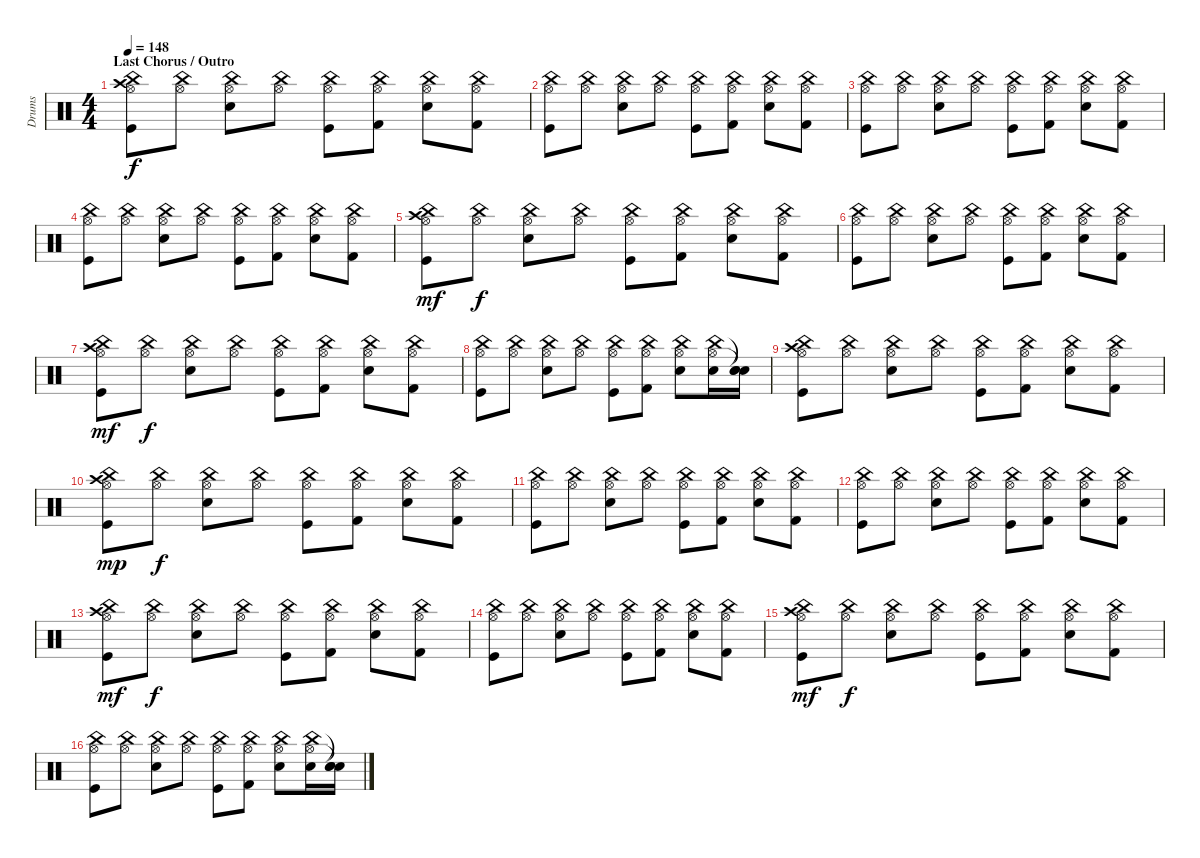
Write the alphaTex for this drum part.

\track ("Drums" "Drums") {instrument percussion}
\staff {score}
\articulation defaults
\ts (4 4)
\section ("" "Last Chorus / Outro")
\tempo 148
\clef neutral
\ks c
("Crash high (hit)" "Hi-Hat (open)" "China (hit)" "Kick (hit)").8{dy f} ("Hi-Hat (open)" "China (hit)").8 ("Hi-Hat (open)" "China (hit)" "Snare (hit) 2").8 ("Hi-Hat (open)" "China (hit)").8 ("Hi-Hat (open)" "China (hit)" "Kick (hit)").8 ("Hi-Hat (open)" "China (hit)" "Kick (hit) 2").8 ("Hi-Hat (open)" "China (hit)" "Snare (hit) 2").8 ("Hi-Hat (open)" "China (hit)" "Kick (hit) 2").8 |
("Hi-Hat (open)" "China (hit)" "Kick (hit)").8 ("Hi-Hat (open)" "China (hit)").8 ("Hi-Hat (open)" "China (hit)" "Snare (hit) 2").8 ("Hi-Hat (open)" "China (hit)").8 ("Hi-Hat (open)" "China (hit)" "Kick (hit)").8 ("Hi-Hat (open)" "China (hit)" "Kick (hit) 2").8 ("Hi-Hat (open)" "China (hit)" "Snare (hit) 2").8 ("Hi-Hat (open)" "China (hit)" "Kick (hit) 2").8 |
("Hi-Hat (open)" "China (hit)" "Kick (hit)").8 ("Hi-Hat (open)" "China (hit)").8 ("Hi-Hat (open)" "China (hit)" "Snare (hit) 2").8 ("Hi-Hat (open)" "China (hit)").8 ("Hi-Hat (open)" "China (hit)" "Kick (hit)").8 ("Hi-Hat (open)" "China (hit)" "Kick (hit) 2").8 ("Hi-Hat (open)" "China (hit)" "Snare (hit) 2").8 ("Hi-Hat (open)" "China (hit)" "Kick (hit) 2").8 |
("Hi-Hat (open)" "China (hit)" "Kick (hit)").8 ("Hi-Hat (open)" "China (hit)").8 ("Hi-Hat (open)" "China (hit)" "Snare (hit) 2").8 ("Hi-Hat (open)" "China (hit)").8 ("Hi-Hat (open)" "China (hit)" "Kick (hit)").8 ("Hi-Hat (open)" "China (hit)" "Kick (hit) 2").8 ("Hi-Hat (open)" "China (hit)" "Snare (hit) 2").8 ("Hi-Hat (open)" "China (hit)" "Kick (hit) 2").8 |
("Crash high (hit)" "Hi-Hat (open)" "China (hit)" "Kick (hit)").8{dy mf} ("Hi-Hat (open)" "China (hit)").8{dy f} ("Hi-Hat (open)" "China (hit)" "Snare (hit) 2").8 ("Hi-Hat (open)" "China (hit)").8 ("Hi-Hat (open)" "China (hit)" "Kick (hit)").8 ("Hi-Hat (open)" "China (hit)" "Kick (hit) 2").8 ("Hi-Hat (open)" "China (hit)" "Snare (hit) 2").8 ("Hi-Hat (open)" "China (hit)" "Kick (hit) 2").8 |
("Hi-Hat (open)" "China (hit)" "Kick (hit)").8 ("Hi-Hat (open)" "China (hit)").8 ("Hi-Hat (open)" "China (hit)" "Snare (hit) 2").8 ("Hi-Hat (open)" "China (hit)").8 ("Hi-Hat (open)" "China (hit)" "Kick (hit)").8 ("Hi-Hat (open)" "China (hit)" "Kick (hit) 2").8 ("Hi-Hat (open)" "China (hit)" "Snare (hit) 2").8 ("Hi-Hat (open)" "China (hit)" "Kick (hit) 2").8 |
("Crash high (hit)" "Hi-Hat (open)" "China (hit)" "Kick (hit)").8{dy mf} ("Hi-Hat (open)" "China (hit)").8{dy f} ("Hi-Hat (open)" "China (hit)" "Snare (hit) 2").8 ("Hi-Hat (open)" "China (hit)").8 ("Hi-Hat (open)" "China (hit)" "Kick (hit)").8 ("Hi-Hat (open)" "China (hit)" "Kick (hit) 2").8 ("Hi-Hat (open)" "China (hit)" "Snare (hit) 2").8 ("Hi-Hat (open)" "China (hit)" "Kick (hit) 2").8 |
("Hi-Hat (open)" "China (hit)" "Kick (hit)").8 ("Hi-Hat (open)" "China (hit)").8 ("Hi-Hat (open)" "China (hit)" "Snare (hit) 2").8 ("Hi-Hat (open)" "China (hit)").8 ("Hi-Hat (open)" "China (hit)" "Kick (hit)").8 ("Hi-Hat (open)" "China (hit)" "Kick (hit) 2").8 ("Hi-Hat (open)" "China (hit)" "Snare (hit) 2").8 ("Hi-Hat (open)" "China (hit)" "Snare (hit) 2").16 ("Snare (hit)"{t} "Snare (hit)"{t} "Electric Snare (hit)").16 |
("Crash high (hit)" "Hi-Hat (open)" "China (hit)" "Kick (hit)").8 ("Hi-Hat (open)" "China (hit)").8 ("Hi-Hat (open)" "China (hit)" "Snare (hit) 2").8 ("Hi-Hat (open)" "China (hit)").8 ("Hi-Hat (open)" "China (hit)" "Kick (hit)").8 ("Hi-Hat (open)" "China (hit)" "Kick (hit) 2").8 ("Hi-Hat (open)" "China (hit)" "Snare (hit) 2").8 ("Hi-Hat (open)" "China (hit)" "Kick (hit) 2").8 |
("Crash high (hit)" "Hi-Hat (open)" "China (hit)" "Kick (hit)").8{dy mp} ("Hi-Hat (open)" "China (hit)").8{dy f} ("Hi-Hat (open)" "China (hit)" "Snare (hit) 2").8 ("Hi-Hat (open)" "China (hit)").8 ("Hi-Hat (open)" "China (hit)" "Kick (hit)").8 ("Hi-Hat (open)" "China (hit)" "Kick (hit) 2").8 ("Hi-Hat (open)" "China (hit)" "Snare (hit) 2").8 ("Hi-Hat (open)" "China (hit)" "Kick (hit) 2").8 |
("Hi-Hat (open)" "China (hit)" "Kick (hit)").8 ("Hi-Hat (open)" "China (hit)").8 ("Hi-Hat (open)" "China (hit)" "Snare (hit) 2").8 ("Hi-Hat (open)" "China (hit)").8 ("Hi-Hat (open)" "China (hit)" "Kick (hit)").8 ("Hi-Hat (open)" "China (hit)" "Kick (hit) 2").8 ("Hi-Hat (open)" "China (hit)" "Snare (hit) 2").8 ("Hi-Hat (open)" "China (hit)" "Kick (hit) 2").8 |
("Hi-Hat (open)" "China (hit)" "Kick (hit)").8 ("Hi-Hat (open)" "China (hit)").8 ("Hi-Hat (open)" "China (hit)" "Snare (hit) 2").8 ("Hi-Hat (open)" "China (hit)").8 ("Hi-Hat (open)" "China (hit)" "Kick (hit)").8 ("Hi-Hat (open)" "China (hit)" "Kick (hit) 2").8 ("Hi-Hat (open)" "China (hit)" "Snare (hit) 2").8 ("Hi-Hat (open)" "China (hit)" "Kick (hit) 2").8 |
("Crash high (hit)" "Hi-Hat (open)" "China (hit)" "Kick (hit)").8{dy mf} ("Hi-Hat (open)" "China (hit)").8{dy f} ("Hi-Hat (open)" "China (hit)" "Snare (hit) 2").8 ("Hi-Hat (open)" "China (hit)").8 ("Hi-Hat (open)" "China (hit)" "Kick (hit)").8 ("Hi-Hat (open)" "China (hit)" "Kick (hit) 2").8 ("Hi-Hat (open)" "China (hit)" "Snare (hit) 2").8 ("Hi-Hat (open)" "China (hit)" "Kick (hit) 2").8 |
("Hi-Hat (open)" "China (hit)" "Kick (hit)").8 ("Hi-Hat (open)" "China (hit)").8 ("Hi-Hat (open)" "China (hit)" "Snare (hit) 2").8 ("Hi-Hat (open)" "China (hit)").8 ("Hi-Hat (open)" "China (hit)" "Kick (hit)").8 ("Hi-Hat (open)" "China (hit)" "Kick (hit) 2").8 ("Hi-Hat (open)" "China (hit)" "Snare (hit) 2").8 ("Hi-Hat (open)" "China (hit)" "Kick (hit) 2").8 |
("Crash high (hit)" "Hi-Hat (open)" "China (hit)" "Kick (hit)").8{dy mf} ("Hi-Hat (open)" "China (hit)").8{dy f} ("Hi-Hat (open)" "China (hit)" "Snare (hit) 2").8 ("Hi-Hat (open)" "China (hit)").8 ("Hi-Hat (open)" "China (hit)" "Kick (hit)").8 ("Hi-Hat (open)" "China (hit)" "Kick (hit) 2").8 ("Hi-Hat (open)" "China (hit)" "Snare (hit) 2").8 ("Hi-Hat (open)" "China (hit)" "Kick (hit) 2").8 |
("Hi-Hat (open)" "China (hit)" "Kick (hit)").8 ("Hi-Hat (open)" "China (hit)").8 ("Hi-Hat (open)" "China (hit)" "Snare (hit) 2").8 ("Hi-Hat (open)" "China (hit)").8 ("Hi-Hat (open)" "China (hit)" "Kick (hit)").8 ("Hi-Hat (open)" "China (hit)" "Kick (hit) 2").8 ("Hi-Hat (open)" "China (hit)" "Snare (hit) 2").8 ("Hi-Hat (open)" "China (hit)" "Snare (hit) 2").16 ("Snare (hit)"{t} "Snare (hit)"{t} "Electric Snare (hit)").16
